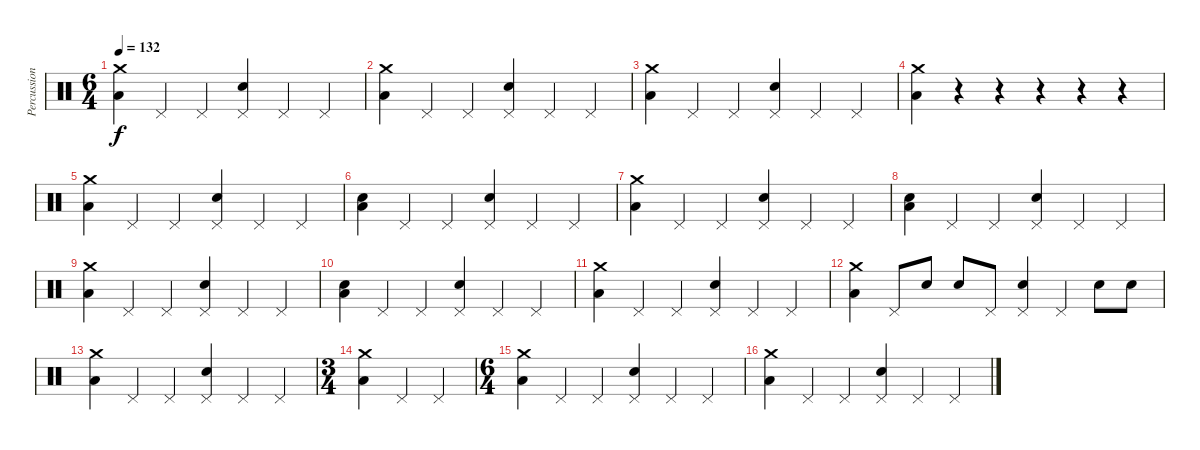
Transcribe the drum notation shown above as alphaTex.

\track ("Percussion" "Percussion") {instrument percussion}
\staff {score}
\articulation defaults
\ts (6 4)
\tempo 132
\clef neutral
\ks c
("Crash medium (hit)" "Low Floor Tom (hit)").4{dy f} "Pedal Hi-Hat (hit)".4 "Pedal Hi-Hat (hit)".4 ("Pedal Hi-Hat (hit)" "Snare (hit) 2").4 "Pedal Hi-Hat (hit)".4 "Pedal Hi-Hat (hit)".4 |
("Crash medium (hit)" "Low Floor Tom (hit)").4 "Pedal Hi-Hat (hit)".4 "Pedal Hi-Hat (hit)".4 ("Pedal Hi-Hat (hit)" "Snare (hit) 2").4 "Pedal Hi-Hat (hit)".4 "Pedal Hi-Hat (hit)".4 |
("Crash medium (hit)" "Low Floor Tom (hit)").4 "Pedal Hi-Hat (hit)".4 "Pedal Hi-Hat (hit)".4 ("Pedal Hi-Hat (hit)" "Snare (hit) 2").4 "Pedal Hi-Hat (hit)".4 "Pedal Hi-Hat (hit)".4 |
("Crash medium (hit)" "Low Floor Tom (hit)").4 r.4 r.4 r.4 r.4 r.4 |
("Crash medium (hit)" "Low Floor Tom (hit)").4 "Pedal Hi-Hat (hit)".4 "Pedal Hi-Hat (hit)".4 ("Pedal Hi-Hat (hit)" "Snare (hit) 2").4 "Pedal Hi-Hat (hit)".4 "Pedal Hi-Hat (hit)".4 |
("Snare (hit) 2" "Low Floor Tom (hit)").4 "Pedal Hi-Hat (hit)".4 "Pedal Hi-Hat (hit)".4 ("Pedal Hi-Hat (hit)" "Snare (hit) 2").4 "Pedal Hi-Hat (hit)".4 "Pedal Hi-Hat (hit)".4 |
("Crash medium (hit)" "Low Floor Tom (hit)").4 "Pedal Hi-Hat (hit)".4 "Pedal Hi-Hat (hit)".4 ("Pedal Hi-Hat (hit)" "Snare (hit) 2").4 "Pedal Hi-Hat (hit)".4 "Pedal Hi-Hat (hit)".4 |
("Snare (hit) 2" "Low Floor Tom (hit)").4 "Pedal Hi-Hat (hit)".4 "Pedal Hi-Hat (hit)".4 ("Pedal Hi-Hat (hit)" "Snare (hit) 2").4 "Pedal Hi-Hat (hit)".4 "Pedal Hi-Hat (hit)".4 |
("Crash medium (hit)" "Low Floor Tom (hit)").4 "Pedal Hi-Hat (hit)".4 "Pedal Hi-Hat (hit)".4 ("Pedal Hi-Hat (hit)" "Snare (hit) 2").4 "Pedal Hi-Hat (hit)".4 "Pedal Hi-Hat (hit)".4 |
("Snare (hit) 2" "Low Floor Tom (hit)").4 "Pedal Hi-Hat (hit)".4 "Pedal Hi-Hat (hit)".4 ("Pedal Hi-Hat (hit)" "Snare (hit) 2").4 "Pedal Hi-Hat (hit)".4 "Pedal Hi-Hat (hit)".4 |
("Crash medium (hit)" "Low Floor Tom (hit)").4 "Pedal Hi-Hat (hit)".4 "Pedal Hi-Hat (hit)".4 ("Pedal Hi-Hat (hit)" "Snare (hit) 2").4 "Pedal Hi-Hat (hit)".4 "Pedal Hi-Hat (hit)".4 |
("Crash medium (hit)" "Low Floor Tom (hit)").4 "Pedal Hi-Hat (hit)".8 "Snare (hit) 2".8 "Snare (hit) 2".8 "Pedal Hi-Hat (hit)".8 ("Pedal Hi-Hat (hit)" "Snare (hit) 2").4 "Pedal Hi-Hat (hit)".4 "Snare (hit) 2".8 "Snare (hit) 2".8 |
("Crash medium (hit)" "Low Floor Tom (hit)").4 "Pedal Hi-Hat (hit)".4 "Pedal Hi-Hat (hit)".4 ("Pedal Hi-Hat (hit)" "Snare (hit) 2").4 "Pedal Hi-Hat (hit)".4 "Pedal Hi-Hat (hit)".4 |
\ts (3 4)
("Crash medium (hit)" "Low Floor Tom (hit)").4 "Pedal Hi-Hat (hit)".4 "Pedal Hi-Hat (hit)".4 |
\ts (6 4)
("Crash medium (hit)" "Low Floor Tom (hit)").4 "Pedal Hi-Hat (hit)".4 "Pedal Hi-Hat (hit)".4 ("Pedal Hi-Hat (hit)" "Snare (hit) 2").4 "Pedal Hi-Hat (hit)".4 "Pedal Hi-Hat (hit)".4 |
("Crash medium (hit)" "Low Floor Tom (hit)").4 "Pedal Hi-Hat (hit)".4 "Pedal Hi-Hat (hit)".4 ("Pedal Hi-Hat (hit)" "Snare (hit) 2").4 "Pedal Hi-Hat (hit)".4 "Pedal Hi-Hat (hit)".4
